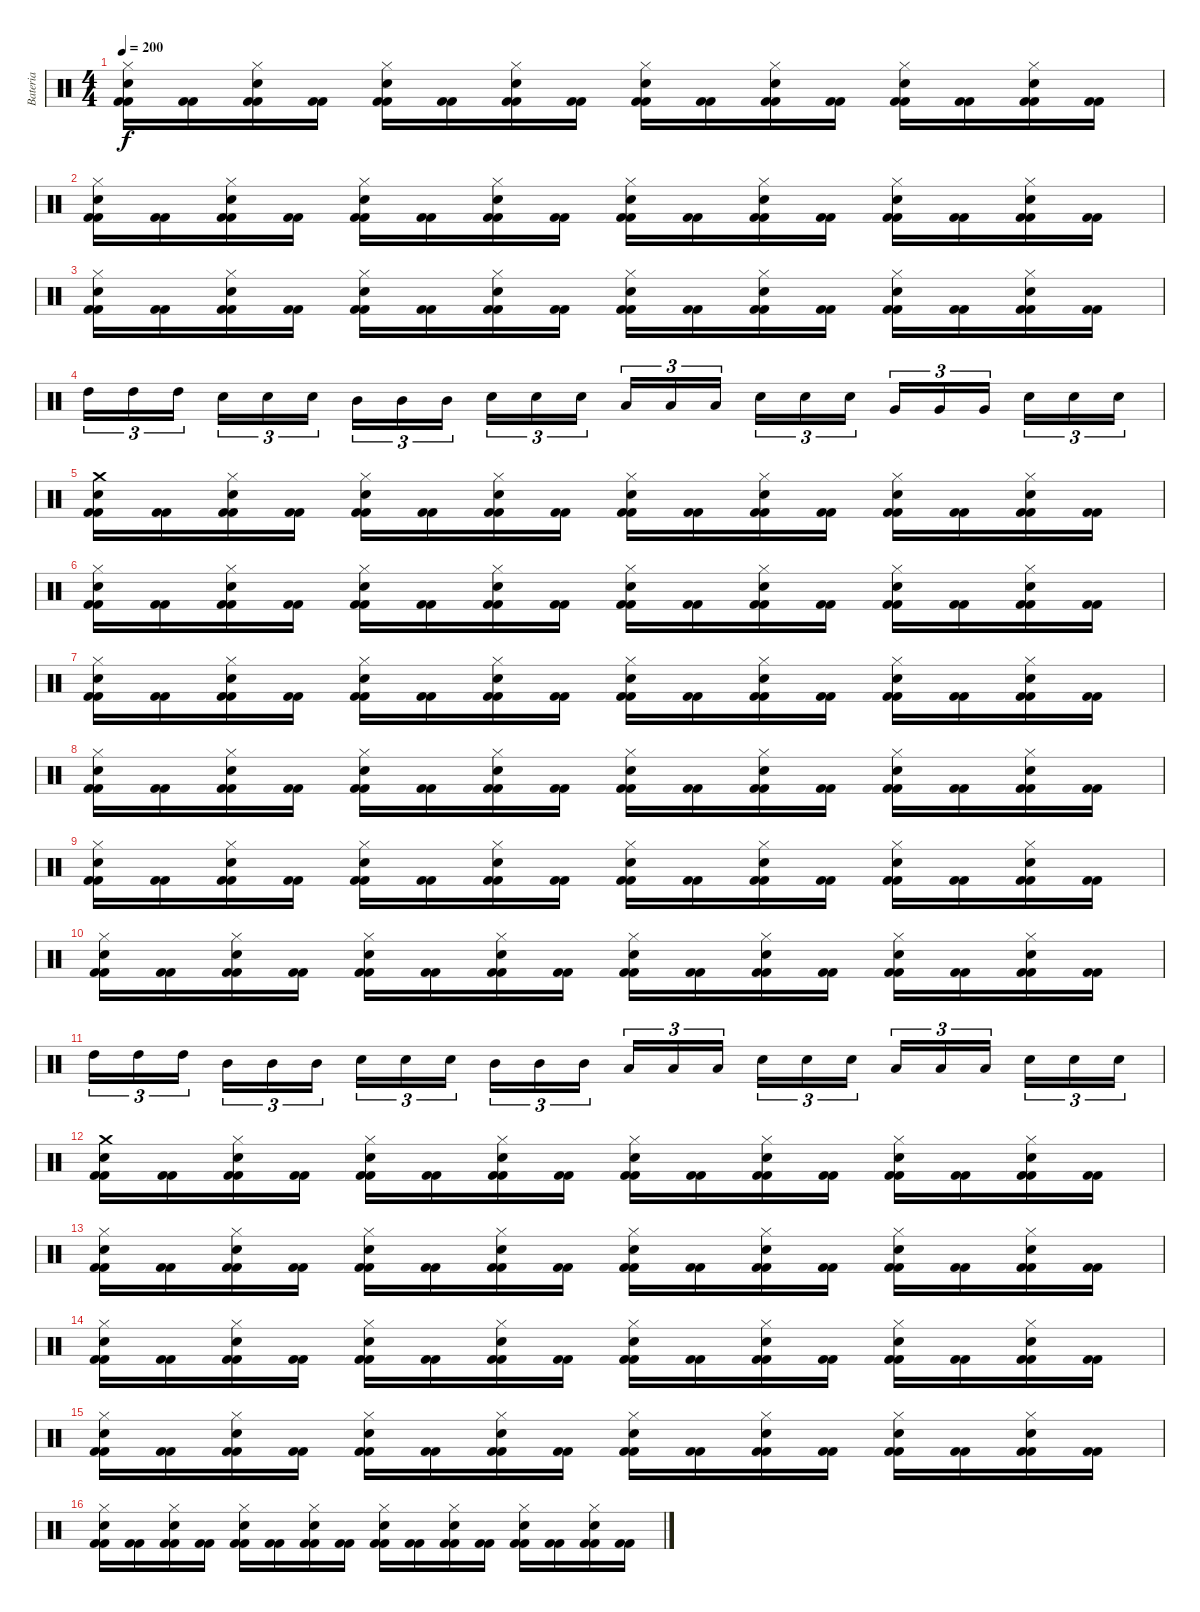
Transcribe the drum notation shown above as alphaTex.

\track ("Bateria" "Bateria") {instrument percussion}
\staff {score}
\articulation defaults
\ts (4 4)
\tempo 200
\clef neutral
\ks c
("Kick (hit) 2" "Kick (hit) 2" "Snare (hit) 2" "Hi-Hat (closed)").16{dy f} ("Kick (hit) 2" "Kick (hit) 2").16 ("Kick (hit) 2" "Kick (hit) 2" "Snare (hit) 2" "Hi-Hat (closed)").16 ("Kick (hit) 2" "Kick (hit) 2").16 ("Kick (hit) 2" "Kick (hit) 2" "Snare (hit) 2" "Hi-Hat (closed)").16 ("Kick (hit) 2" "Kick (hit) 2").16 ("Kick (hit) 2" "Kick (hit) 2" "Snare (hit) 2" "Hi-Hat (closed)").16 ("Kick (hit) 2" "Kick (hit) 2").16 ("Kick (hit) 2" "Kick (hit) 2" "Snare (hit) 2" "Hi-Hat (closed)").16 ("Kick (hit) 2" "Kick (hit) 2").16 ("Kick (hit) 2" "Kick (hit) 2" "Snare (hit) 2" "Hi-Hat (closed)").16 ("Kick (hit) 2" "Kick (hit) 2").16 ("Kick (hit) 2" "Kick (hit) 2" "Snare (hit) 2" "Hi-Hat (closed)").16 ("Kick (hit) 2" "Kick (hit) 2").16 ("Kick (hit) 2" "Kick (hit) 2" "Snare (hit) 2" "Hi-Hat (closed)").16 ("Kick (hit) 2" "Kick (hit) 2").16 |
("Kick (hit) 2" "Kick (hit) 2" "Snare (hit) 2" "Hi-Hat (closed)").16 ("Kick (hit) 2" "Kick (hit) 2").16 ("Kick (hit) 2" "Kick (hit) 2" "Snare (hit) 2" "Hi-Hat (closed)").16 ("Kick (hit) 2" "Kick (hit) 2").16 ("Kick (hit) 2" "Kick (hit) 2" "Snare (hit) 2" "Hi-Hat (closed)").16 ("Kick (hit) 2" "Kick (hit) 2").16 ("Kick (hit) 2" "Kick (hit) 2" "Snare (hit) 2" "Hi-Hat (closed)").16 ("Kick (hit) 2" "Kick (hit) 2").16 ("Kick (hit) 2" "Kick (hit) 2" "Snare (hit) 2" "Hi-Hat (closed)").16 ("Kick (hit) 2" "Kick (hit) 2").16 ("Kick (hit) 2" "Kick (hit) 2" "Snare (hit) 2" "Hi-Hat (closed)").16 ("Kick (hit) 2" "Kick (hit) 2").16 ("Kick (hit) 2" "Kick (hit) 2" "Snare (hit) 2" "Hi-Hat (closed)").16 ("Kick (hit) 2" "Kick (hit) 2").16 ("Kick (hit) 2" "Kick (hit) 2" "Snare (hit) 2" "Hi-Hat (closed)").16 ("Kick (hit) 2" "Kick (hit) 2").16 |
("Kick (hit) 2" "Kick (hit) 2" "Snare (hit) 2" "Hi-Hat (closed)").16 ("Kick (hit) 2" "Kick (hit) 2").16 ("Kick (hit) 2" "Kick (hit) 2" "Snare (hit) 2" "Hi-Hat (closed)").16 ("Kick (hit) 2" "Kick (hit) 2").16 ("Kick (hit) 2" "Kick (hit) 2" "Snare (hit) 2" "Hi-Hat (closed)").16 ("Kick (hit) 2" "Kick (hit) 2").16 ("Kick (hit) 2" "Kick (hit) 2" "Snare (hit) 2" "Hi-Hat (closed)").16 ("Kick (hit) 2" "Kick (hit) 2").16 ("Kick (hit) 2" "Kick (hit) 2" "Snare (hit) 2" "Hi-Hat (closed)").16 ("Kick (hit) 2" "Kick (hit) 2").16 ("Kick (hit) 2" "Kick (hit) 2" "Snare (hit) 2" "Hi-Hat (closed)").16 ("Kick (hit) 2" "Kick (hit) 2").16 ("Kick (hit) 2" "Kick (hit) 2" "Snare (hit) 2" "Hi-Hat (closed)").16 ("Kick (hit) 2" "Kick (hit) 2").16 ("Kick (hit) 2" "Kick (hit) 2" "Snare (hit) 2" "Hi-Hat (closed)").16 ("Kick (hit) 2" "Kick (hit) 2").16 |
"High Tom (hit)".16{tu (3 2)} "High Tom (hit)".16{tu (3 2)} "High Tom (hit)".16{tu (3 2)} "Snare (hit) 2".16{tu (3 2)} "Snare (hit) 2".16{tu (3 2)} "Snare (hit) 2".16{tu (3 2)} "Mid Tom (hit)".16{tu (3 2)} "Mid Tom (hit)".16{tu (3 2)} "Mid Tom (hit)".16{tu (3 2)} "Snare (hit) 2".16{tu (3 2)} "Snare (hit) 2".16{tu (3 2)} "Snare (hit) 2".16{tu (3 2)} "Low Tom (hit)".16{tu (3 2)} "Low Tom (hit)".16{tu (3 2)} "Low Tom (hit)".16{tu (3 2)} "Snare (hit) 2".16{tu (3 2)} "Snare (hit) 2".16{tu (3 2)} "Snare (hit) 2".16{tu (3 2)} "Very Low Tom (hit)".16{tu (3 2)} "Very Low Tom (hit)".16{tu (3 2)} "Very Low Tom (hit)".16{tu (3 2)} "Snare (hit) 2".16{tu (3 2)} "Snare (hit) 2".16{tu (3 2)} "Snare (hit) 2".16{tu (3 2)} |
("Kick (hit) 2" "Kick (hit) 2" "Snare (hit) 2" "Crash medium (hit)").16 ("Kick (hit) 2" "Kick (hit) 2").16 ("Kick (hit) 2" "Kick (hit) 2" "Snare (hit) 2" "Hi-Hat (closed)").16 ("Kick (hit) 2" "Kick (hit) 2").16 ("Kick (hit) 2" "Kick (hit) 2" "Snare (hit) 2" "Hi-Hat (closed)").16 ("Kick (hit) 2" "Kick (hit) 2").16 ("Kick (hit) 2" "Kick (hit) 2" "Snare (hit) 2" "Hi-Hat (closed)").16 ("Kick (hit) 2" "Kick (hit) 2").16 ("Kick (hit) 2" "Kick (hit) 2" "Snare (hit) 2" "Hi-Hat (closed)").16 ("Kick (hit) 2" "Kick (hit) 2").16 ("Kick (hit) 2" "Kick (hit) 2" "Snare (hit) 2" "Hi-Hat (closed)").16 ("Kick (hit) 2" "Kick (hit) 2").16 ("Kick (hit) 2" "Kick (hit) 2" "Snare (hit) 2" "Hi-Hat (closed)").16 ("Kick (hit) 2" "Kick (hit) 2").16 ("Kick (hit) 2" "Kick (hit) 2" "Snare (hit) 2" "Hi-Hat (closed)").16 ("Kick (hit) 2" "Kick (hit) 2").16 |
("Kick (hit) 2" "Kick (hit) 2" "Snare (hit) 2" "Hi-Hat (closed)").16 ("Kick (hit) 2" "Kick (hit) 2").16 ("Kick (hit) 2" "Kick (hit) 2" "Snare (hit) 2" "Hi-Hat (closed)").16 ("Kick (hit) 2" "Kick (hit) 2").16 ("Kick (hit) 2" "Kick (hit) 2" "Snare (hit) 2" "Hi-Hat (closed)").16 ("Kick (hit) 2" "Kick (hit) 2").16 ("Kick (hit) 2" "Kick (hit) 2" "Snare (hit) 2" "Hi-Hat (closed)").16 ("Kick (hit) 2" "Kick (hit) 2").16 ("Kick (hit) 2" "Kick (hit) 2" "Snare (hit) 2" "Hi-Hat (closed)").16 ("Kick (hit) 2" "Kick (hit) 2").16 ("Kick (hit) 2" "Kick (hit) 2" "Snare (hit) 2" "Hi-Hat (closed)").16 ("Kick (hit) 2" "Kick (hit) 2").16 ("Kick (hit) 2" "Kick (hit) 2" "Snare (hit) 2" "Hi-Hat (closed)").16 ("Kick (hit) 2" "Kick (hit) 2").16 ("Kick (hit) 2" "Kick (hit) 2" "Snare (hit) 2" "Hi-Hat (closed)").16 ("Kick (hit) 2" "Kick (hit) 2").16 |
("Kick (hit) 2" "Kick (hit) 2" "Snare (hit) 2" "Hi-Hat (closed)").16 ("Kick (hit) 2" "Kick (hit) 2").16 ("Kick (hit) 2" "Kick (hit) 2" "Snare (hit) 2" "Hi-Hat (closed)").16 ("Kick (hit) 2" "Kick (hit) 2").16 ("Kick (hit) 2" "Kick (hit) 2" "Snare (hit) 2" "Hi-Hat (closed)").16 ("Kick (hit) 2" "Kick (hit) 2").16 ("Kick (hit) 2" "Kick (hit) 2" "Snare (hit) 2" "Hi-Hat (closed)").16 ("Kick (hit) 2" "Kick (hit) 2").16 ("Kick (hit) 2" "Kick (hit) 2" "Snare (hit) 2" "Hi-Hat (closed)").16 ("Kick (hit) 2" "Kick (hit) 2").16 ("Kick (hit) 2" "Kick (hit) 2" "Snare (hit) 2" "Hi-Hat (closed)").16 ("Kick (hit) 2" "Kick (hit) 2").16 ("Kick (hit) 2" "Kick (hit) 2" "Snare (hit) 2" "Hi-Hat (closed)").16 ("Kick (hit) 2" "Kick (hit) 2").16 ("Kick (hit) 2" "Kick (hit) 2" "Snare (hit) 2" "Hi-Hat (closed)").16 ("Kick (hit) 2" "Kick (hit) 2").16 |
("Kick (hit) 2" "Kick (hit) 2" "Snare (hit) 2" "Hi-Hat (closed)").16 ("Kick (hit) 2" "Kick (hit) 2").16 ("Kick (hit) 2" "Kick (hit) 2" "Snare (hit) 2" "Hi-Hat (closed)").16 ("Kick (hit) 2" "Kick (hit) 2").16 ("Kick (hit) 2" "Kick (hit) 2" "Snare (hit) 2" "Hi-Hat (closed)").16 ("Kick (hit) 2" "Kick (hit) 2").16 ("Kick (hit) 2" "Kick (hit) 2" "Snare (hit) 2" "Hi-Hat (closed)").16 ("Kick (hit) 2" "Kick (hit) 2").16 ("Kick (hit) 2" "Kick (hit) 2" "Snare (hit) 2" "Hi-Hat (closed)").16 ("Kick (hit) 2" "Kick (hit) 2").16 ("Kick (hit) 2" "Kick (hit) 2" "Snare (hit) 2" "Hi-Hat (closed)").16 ("Kick (hit) 2" "Kick (hit) 2").16 ("Kick (hit) 2" "Kick (hit) 2" "Snare (hit) 2" "Hi-Hat (closed)").16 ("Kick (hit) 2" "Kick (hit) 2").16 ("Kick (hit) 2" "Kick (hit) 2" "Snare (hit) 2" "Hi-Hat (closed)").16 ("Kick (hit) 2" "Kick (hit) 2").16 |
("Kick (hit) 2" "Kick (hit) 2" "Snare (hit) 2" "Hi-Hat (closed)").16 ("Kick (hit) 2" "Kick (hit) 2").16 ("Kick (hit) 2" "Kick (hit) 2" "Snare (hit) 2" "Hi-Hat (closed)").16 ("Kick (hit) 2" "Kick (hit) 2").16 ("Kick (hit) 2" "Kick (hit) 2" "Snare (hit) 2" "Hi-Hat (closed)").16 ("Kick (hit) 2" "Kick (hit) 2").16 ("Kick (hit) 2" "Kick (hit) 2" "Snare (hit) 2" "Hi-Hat (closed)").16 ("Kick (hit) 2" "Kick (hit) 2").16 ("Kick (hit) 2" "Kick (hit) 2" "Snare (hit) 2" "Hi-Hat (closed)").16 ("Kick (hit) 2" "Kick (hit) 2").16 ("Kick (hit) 2" "Kick (hit) 2" "Snare (hit) 2" "Hi-Hat (closed)").16 ("Kick (hit) 2" "Kick (hit) 2").16 ("Kick (hit) 2" "Kick (hit) 2" "Snare (hit) 2" "Hi-Hat (closed)").16 ("Kick (hit) 2" "Kick (hit) 2").16 ("Kick (hit) 2" "Kick (hit) 2" "Snare (hit) 2" "Hi-Hat (closed)").16 ("Kick (hit) 2" "Kick (hit) 2").16 |
("Kick (hit) 2" "Kick (hit) 2" "Snare (hit) 2" "Hi-Hat (closed)").16 ("Kick (hit) 2" "Kick (hit) 2").16 ("Kick (hit) 2" "Kick (hit) 2" "Snare (hit) 2" "Hi-Hat (closed)").16 ("Kick (hit) 2" "Kick (hit) 2").16 ("Kick (hit) 2" "Kick (hit) 2" "Snare (hit) 2" "Hi-Hat (closed)").16 ("Kick (hit) 2" "Kick (hit) 2").16 ("Kick (hit) 2" "Kick (hit) 2" "Snare (hit) 2" "Hi-Hat (closed)").16 ("Kick (hit) 2" "Kick (hit) 2").16 ("Kick (hit) 2" "Kick (hit) 2" "Snare (hit) 2" "Hi-Hat (closed)").16 ("Kick (hit) 2" "Kick (hit) 2").16 ("Kick (hit) 2" "Kick (hit) 2" "Snare (hit) 2" "Hi-Hat (closed)").16 ("Kick (hit) 2" "Kick (hit) 2").16 ("Kick (hit) 2" "Kick (hit) 2" "Snare (hit) 2" "Hi-Hat (closed)").16 ("Kick (hit) 2" "Kick (hit) 2").16 ("Kick (hit) 2" "Kick (hit) 2" "Snare (hit) 2" "Hi-Hat (closed)").16 ("Kick (hit) 2" "Kick (hit) 2").16 |
"High Tom (hit)".16{tu (3 2)} "High Tom (hit)".16{tu (3 2)} "High Tom (hit)".16{tu (3 2)} "Mid Tom (hit)".16{tu (3 2)} "Mid Tom (hit)".16{tu (3 2)} "Mid Tom (hit)".16{tu (3 2)} "Snare (hit) 2".16{tu (3 2)} "Snare (hit) 2".16{tu (3 2)} "Snare (hit) 2".16{tu (3 2)} "Mid Tom (hit)".16{tu (3 2)} "Mid Tom (hit)".16{tu (3 2)} "Mid Tom (hit)".16{tu (3 2)} "Low Tom (hit)".16{tu (3 2)} "Low Tom (hit)".16{tu (3 2)} "Low Tom (hit)".16{tu (3 2)} "Snare (hit) 2".16{tu (3 2)} "Snare (hit) 2".16{tu (3 2)} "Snare (hit) 2".16{tu (3 2)} "Low Tom (hit)".16{tu (3 2)} "Low Tom (hit)".16{tu (3 2)} "Low Tom (hit)".16{tu (3 2)} "Snare (hit) 2".16{tu (3 2)} "Snare (hit) 2".16{tu (3 2)} "Snare (hit) 2".16{tu (3 2)} |
("Kick (hit) 2" "Kick (hit) 2" "Snare (hit) 2" "Crash medium (hit)").16 ("Kick (hit) 2" "Kick (hit) 2").16 ("Kick (hit) 2" "Kick (hit) 2" "Snare (hit) 2" "Hi-Hat (closed)").16 ("Kick (hit) 2" "Kick (hit) 2").16 ("Kick (hit) 2" "Kick (hit) 2" "Snare (hit) 2" "Hi-Hat (closed)").16 ("Kick (hit) 2" "Kick (hit) 2").16 ("Kick (hit) 2" "Kick (hit) 2" "Snare (hit) 2" "Hi-Hat (closed)").16 ("Kick (hit) 2" "Kick (hit) 2").16 ("Kick (hit) 2" "Kick (hit) 2" "Snare (hit) 2" "Hi-Hat (closed)").16 ("Kick (hit) 2" "Kick (hit) 2").16 ("Kick (hit) 2" "Kick (hit) 2" "Snare (hit) 2" "Hi-Hat (closed)").16 ("Kick (hit) 2" "Kick (hit) 2").16 ("Kick (hit) 2" "Kick (hit) 2" "Snare (hit) 2" "Hi-Hat (closed)").16 ("Kick (hit) 2" "Kick (hit) 2").16 ("Kick (hit) 2" "Kick (hit) 2" "Snare (hit) 2" "Hi-Hat (closed)").16 ("Kick (hit) 2" "Kick (hit) 2").16 |
("Kick (hit) 2" "Kick (hit) 2" "Snare (hit) 2" "Hi-Hat (closed)").16 ("Kick (hit) 2" "Kick (hit) 2").16 ("Kick (hit) 2" "Kick (hit) 2" "Snare (hit) 2" "Hi-Hat (closed)").16 ("Kick (hit) 2" "Kick (hit) 2").16 ("Kick (hit) 2" "Kick (hit) 2" "Snare (hit) 2" "Hi-Hat (closed)").16 ("Kick (hit) 2" "Kick (hit) 2").16 ("Kick (hit) 2" "Kick (hit) 2" "Snare (hit) 2" "Hi-Hat (closed)").16 ("Kick (hit) 2" "Kick (hit) 2").16 ("Kick (hit) 2" "Kick (hit) 2" "Snare (hit) 2" "Hi-Hat (closed)").16 ("Kick (hit) 2" "Kick (hit) 2").16 ("Kick (hit) 2" "Kick (hit) 2" "Snare (hit) 2" "Hi-Hat (closed)").16 ("Kick (hit) 2" "Kick (hit) 2").16 ("Kick (hit) 2" "Kick (hit) 2" "Snare (hit) 2" "Hi-Hat (closed)").16 ("Kick (hit) 2" "Kick (hit) 2").16 ("Kick (hit) 2" "Kick (hit) 2" "Snare (hit) 2" "Hi-Hat (closed)").16 ("Kick (hit) 2" "Kick (hit) 2").16 |
("Kick (hit) 2" "Kick (hit) 2" "Snare (hit) 2" "Hi-Hat (closed)").16 ("Kick (hit) 2" "Kick (hit) 2").16 ("Kick (hit) 2" "Kick (hit) 2" "Snare (hit) 2" "Hi-Hat (closed)").16 ("Kick (hit) 2" "Kick (hit) 2").16 ("Kick (hit) 2" "Kick (hit) 2" "Snare (hit) 2" "Hi-Hat (closed)").16 ("Kick (hit) 2" "Kick (hit) 2").16 ("Kick (hit) 2" "Kick (hit) 2" "Snare (hit) 2" "Hi-Hat (closed)").16 ("Kick (hit) 2" "Kick (hit) 2").16 ("Kick (hit) 2" "Kick (hit) 2" "Snare (hit) 2" "Hi-Hat (closed)").16 ("Kick (hit) 2" "Kick (hit) 2").16 ("Kick (hit) 2" "Kick (hit) 2" "Snare (hit) 2" "Hi-Hat (closed)").16 ("Kick (hit) 2" "Kick (hit) 2").16 ("Kick (hit) 2" "Kick (hit) 2" "Snare (hit) 2" "Hi-Hat (closed)").16 ("Kick (hit) 2" "Kick (hit) 2").16 ("Kick (hit) 2" "Kick (hit) 2" "Snare (hit) 2" "Hi-Hat (closed)").16 ("Kick (hit) 2" "Kick (hit) 2").16 |
("Kick (hit) 2" "Kick (hit) 2" "Snare (hit) 2" "Hi-Hat (closed)").16 ("Kick (hit) 2" "Kick (hit) 2").16 ("Kick (hit) 2" "Kick (hit) 2" "Snare (hit) 2" "Hi-Hat (closed)").16 ("Kick (hit) 2" "Kick (hit) 2").16 ("Kick (hit) 2" "Kick (hit) 2" "Snare (hit) 2" "Hi-Hat (closed)").16 ("Kick (hit) 2" "Kick (hit) 2").16 ("Kick (hit) 2" "Kick (hit) 2" "Snare (hit) 2" "Hi-Hat (closed)").16 ("Kick (hit) 2" "Kick (hit) 2").16 ("Kick (hit) 2" "Kick (hit) 2" "Snare (hit) 2" "Hi-Hat (closed)").16 ("Kick (hit) 2" "Kick (hit) 2").16 ("Kick (hit) 2" "Kick (hit) 2" "Snare (hit) 2" "Hi-Hat (closed)").16 ("Kick (hit) 2" "Kick (hit) 2").16 ("Kick (hit) 2" "Kick (hit) 2" "Snare (hit) 2" "Hi-Hat (closed)").16 ("Kick (hit) 2" "Kick (hit) 2").16 ("Kick (hit) 2" "Kick (hit) 2" "Snare (hit) 2" "Hi-Hat (closed)").16 ("Kick (hit) 2" "Kick (hit) 2").16 |
("Kick (hit) 2" "Kick (hit) 2" "Snare (hit) 2" "Hi-Hat (closed)").16 ("Kick (hit) 2" "Kick (hit) 2").16 ("Kick (hit) 2" "Kick (hit) 2" "Snare (hit) 2" "Hi-Hat (closed)").16 ("Kick (hit) 2" "Kick (hit) 2").16 ("Kick (hit) 2" "Kick (hit) 2" "Snare (hit) 2" "Hi-Hat (closed)").16 ("Kick (hit) 2" "Kick (hit) 2").16 ("Kick (hit) 2" "Kick (hit) 2" "Snare (hit) 2" "Hi-Hat (closed)").16 ("Kick (hit) 2" "Kick (hit) 2").16 ("Kick (hit) 2" "Kick (hit) 2" "Snare (hit) 2" "Hi-Hat (closed)").16 ("Kick (hit) 2" "Kick (hit) 2").16 ("Kick (hit) 2" "Kick (hit) 2" "Snare (hit) 2" "Hi-Hat (closed)").16 ("Kick (hit) 2" "Kick (hit) 2").16 ("Kick (hit) 2" "Kick (hit) 2" "Snare (hit) 2" "Hi-Hat (closed)").16 ("Kick (hit) 2" "Kick (hit) 2").16 ("Kick (hit) 2" "Kick (hit) 2" "Snare (hit) 2" "Hi-Hat (closed)").16 ("Kick (hit) 2" "Kick (hit) 2").16
